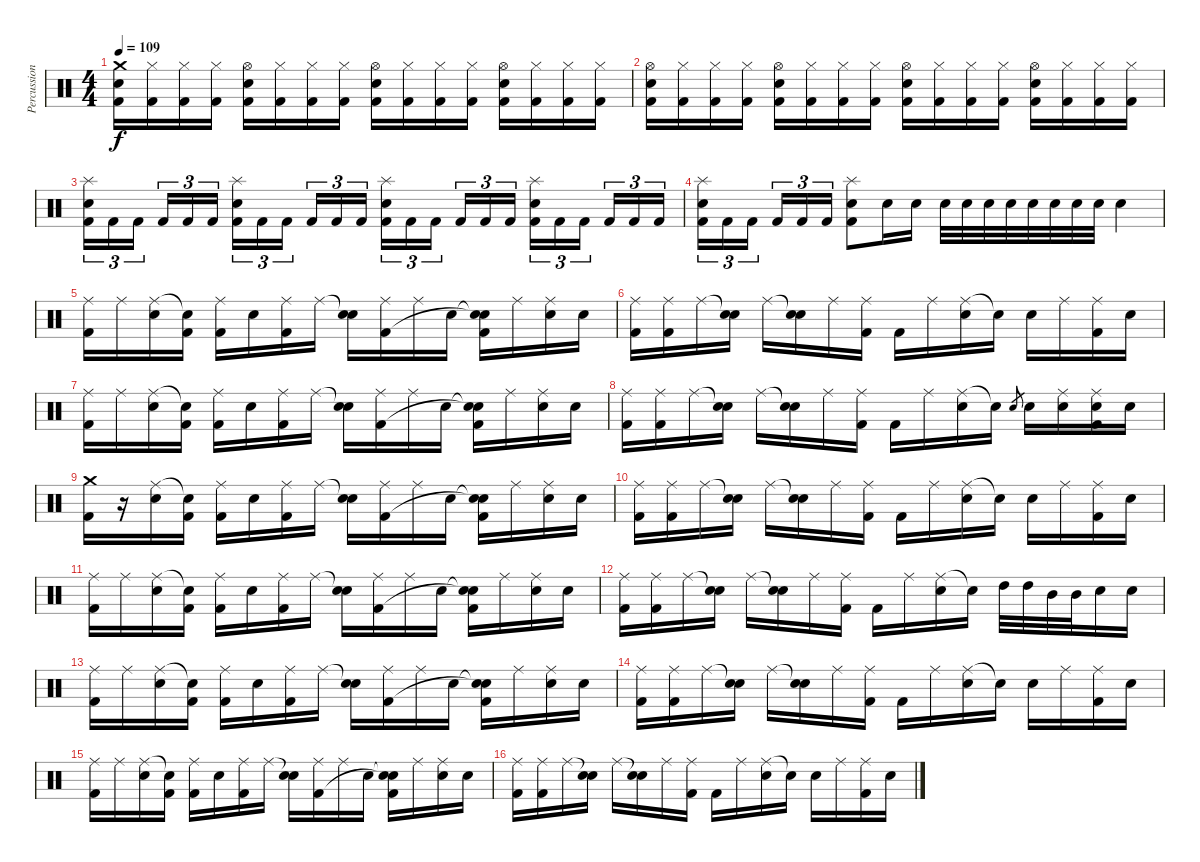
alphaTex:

\track ("Percussions" "Percussion") {instrument percussion}
\staff {score}
\articulation defaults
\ts (4 4)
\tempo 109
\clef neutral
\ks c
("Crash medium (hit)" "Electric Snare (hit)" "Kick (hit) 2").16{dy f} ("Hi-Hat (closed)" "Kick (hit) 2").16 ("Hi-Hat (closed)" "Kick (hit) 2").16 ("Hi-Hat (closed)" "Kick (hit) 2").16 ("Hi-Hat (open)" "Electric Snare (hit)" "Kick (hit) 2").16 ("Hi-Hat (closed)" "Kick (hit) 2").16 ("Hi-Hat (closed)" "Kick (hit) 2").16 ("Hi-Hat (closed)" "Kick (hit) 2").16 ("Hi-Hat (open)" "Electric Snare (hit)" "Kick (hit) 2").16 ("Hi-Hat (closed)" "Kick (hit) 2").16 ("Hi-Hat (closed)" "Kick (hit) 2").16 ("Hi-Hat (closed)" "Kick (hit) 2").16 ("Hi-Hat (open)" "Electric Snare (hit)" "Kick (hit) 2").16 ("Hi-Hat (closed)" "Kick (hit) 2").16 ("Hi-Hat (closed)" "Kick (hit) 2").16 ("Hi-Hat (closed)" "Kick (hit) 2").16 |
("Hi-Hat (open)" "Electric Snare (hit)" "Kick (hit) 2").16 ("Hi-Hat (closed)" "Kick (hit) 2").16 ("Hi-Hat (closed)" "Kick (hit) 2").16 ("Hi-Hat (closed)" "Kick (hit) 2").16 ("Hi-Hat (open)" "Electric Snare (hit)" "Kick (hit) 2").16 ("Hi-Hat (closed)" "Kick (hit) 2").16 ("Hi-Hat (closed)" "Kick (hit) 2").16 ("Hi-Hat (closed)" "Kick (hit) 2").16 ("Hi-Hat (open)" "Electric Snare (hit)" "Kick (hit) 2").16 ("Hi-Hat (closed)" "Kick (hit) 2").16 ("Hi-Hat (closed)" "Kick (hit) 2").16 ("Hi-Hat (closed)" "Kick (hit) 2").16 ("Hi-Hat (open)" "Electric Snare (hit)" "Kick (hit) 2").16 ("Hi-Hat (closed)" "Kick (hit) 2").16 ("Hi-Hat (closed)" "Kick (hit) 2").16 ("Hi-Hat (closed)" "Kick (hit) 2").16 |
("Splash (hit)" "Electric Snare (hit)" "Kick (hit) 2").16{tu (3 2)} "Kick (hit) 2".16{tu (3 2)} "Kick (hit) 2".16{tu (3 2)} "Kick (hit) 2".16{tu (3 2)} "Kick (hit) 2".16{tu (3 2)} "Kick (hit) 2".16{tu (3 2)} ("Splash (hit)" "Electric Snare (hit)" "Kick (hit) 2").16{tu (3 2)} "Kick (hit) 2".16{tu (3 2)} "Kick (hit) 2".16{tu (3 2)} "Kick (hit) 2".16{tu (3 2)} "Kick (hit) 2".16{tu (3 2)} "Kick (hit) 2".16{tu (3 2)} ("Splash (hit)" "Electric Snare (hit)" "Kick (hit) 2").16{tu (3 2)} "Kick (hit) 2".16{tu (3 2)} "Kick (hit) 2".16{tu (3 2)} "Kick (hit) 2".16{tu (3 2)} "Kick (hit) 2".16{tu (3 2)} "Kick (hit) 2".16{tu (3 2)} ("Splash (hit)" "Electric Snare (hit)" "Kick (hit) 2").16{tu (3 2)} "Kick (hit) 2".16{tu (3 2)} "Kick (hit) 2".16{tu (3 2)} "Kick (hit) 2".16{tu (3 2)} "Kick (hit) 2".16{tu (3 2)} "Kick (hit) 2".16{tu (3 2)} |
("Splash (hit)" "Electric Snare (hit)" "Kick (hit) 2").16{tu (3 2)} "Kick (hit) 2".16{tu (3 2)} "Kick (hit) 2".16{tu (3 2)} "Kick (hit) 2".16{tu (3 2)} "Kick (hit) 2".16{tu (3 2)} "Kick (hit) 2".16{tu (3 2)} ("Splash (hit)" "Electric Snare (hit)" "Kick (hit) 2").8 "Electric Snare (hit)".16 "Electric Snare (hit)".16 "Electric Snare (hit)".32 "Electric Snare (hit)".32 "Electric Snare (hit)".32 "Electric Snare (hit)".32 "Electric Snare (hit)".32 "Electric Snare (hit)".32 "Electric Snare (hit)".32 "Electric Snare (hit)".32 "Electric Snare (hit)".4 |
("Ride (middle)" "Kick (hit) 2").16 "Ride (middle)".16 ("Ride (middle)" "Electric Snare (hit)").16 ("Electric Snare (hit)"{t} "Kick (hit) 2").16 ("Ride (middle)" "Kick (hit) 2").16 "Electric Snare (hit)".16 ("Ride (middle)" "Kick (hit) 2").16 "Ride (middle)".16 ("Snare (hit)"{t} "Electric Snare (hit)").16 ("Ride (middle)" "Kick (hit) 2").16 "Ride (middle)".16 "Electric Snare (hit)".16 ("Snare (hit)"{t} "Snare (hit)"{t} "Kick (hit) 2").16 "Ride (middle)".16 ("Ride (middle)" "Electric Snare (hit)").16 "Electric Snare (hit)".16 |
("Ride (middle)" "Kick (hit) 2").16 ("Ride (middle)" "Kick (hit) 2").16 "Ride (middle)".16 ("Snare (hit)"{t} "Electric Snare (hit)").16 "Ride (middle)".16 ("Snare (hit)"{t} "Electric Snare (hit)").16 "Ride (middle)".16 ("Ride (middle)" "Kick (hit) 2").16 "Kick (hit) 2".16 "Ride (middle)".16 ("Ride (middle)" "Electric Snare (hit)").16 "Snare (hit)"{t}.16 "Electric Snare (hit)".16 "Ride (middle)".16 ("Ride (middle)" "Kick (hit) 2").16 "Electric Snare (hit)".16 |
("Ride (middle)" "Kick (hit) 2").16 "Ride (middle)".16 ("Ride (middle)" "Electric Snare (hit)").16 ("Electric Snare (hit)"{t} "Kick (hit) 2").16 ("Ride (middle)" "Kick (hit) 2").16 "Electric Snare (hit)".16 ("Ride (middle)" "Kick (hit) 2").16 "Ride (middle)".16 ("Snare (hit)"{t} "Electric Snare (hit)").16 ("Ride (middle)" "Kick (hit) 2").16 "Ride (middle)".16 "Electric Snare (hit)".16 ("Snare (hit)"{t} "Snare (hit)"{t} "Kick (hit) 2").16 "Ride (middle)".16 ("Ride (middle)" "Electric Snare (hit)").16 "Electric Snare (hit)".16 |
("Ride (middle)" "Kick (hit) 2").16 ("Ride (middle)" "Kick (hit) 2").16 "Ride (middle)".16 ("Snare (hit)"{t} "Electric Snare (hit)").16 "Ride (middle)".16 ("Snare (hit)"{t} "Electric Snare (hit)").16 "Ride (middle)".16 ("Ride (middle)" "Kick (hit) 2").16 "Kick (hit) 2".16 "Ride (middle)".16 ("Ride (middle)" "Electric Snare (hit)").16 "Snare (hit)"{t}.16 "Electric Snare (hit)".8{gr} "Electric Snare (hit)".16 ("Ride (middle)" "Electric Snare (hit)").16 ("Ride (middle)" "Electric Snare (hit)" "Kick (hit) 2").16 "Electric Snare (hit)".16 |
("Crash medium (hit)" "Kick (hit) 2").16 r.16 ("Ride (middle)" "Electric Snare (hit)").16 ("Electric Snare (hit)"{t} "Kick (hit) 2").16 ("Ride (middle)" "Kick (hit) 2").16 "Electric Snare (hit)".16 ("Ride (middle)" "Kick (hit) 2").16 "Ride (middle)".16 ("Snare (hit)"{t} "Electric Snare (hit)").16 ("Ride (middle)" "Kick (hit) 2").16 "Ride (middle)".16 "Electric Snare (hit)".16 ("Snare (hit)"{t} "Snare (hit)"{t} "Kick (hit) 2").16 "Ride (middle)".16 ("Ride (middle)" "Electric Snare (hit)").16 "Electric Snare (hit)".16 |
("Ride (middle)" "Kick (hit) 2").16 ("Ride (middle)" "Kick (hit) 2").16 "Ride (middle)".16 ("Snare (hit)"{t} "Electric Snare (hit)").16 "Ride (middle)".16 ("Snare (hit)"{t} "Electric Snare (hit)").16 "Ride (middle)".16 ("Ride (middle)" "Kick (hit) 2").16 "Kick (hit) 2".16 "Ride (middle)".16 ("Ride (middle)" "Electric Snare (hit)").16 "Snare (hit)"{t}.16 "Electric Snare (hit)".16 "Ride (middle)".16 ("Ride (middle)" "Kick (hit) 2").16 "Electric Snare (hit)".16 |
("Ride (middle)" "Kick (hit) 2").16 "Ride (middle)".16 ("Ride (middle)" "Electric Snare (hit)").16 ("Electric Snare (hit)"{t} "Kick (hit) 2").16 ("Ride (middle)" "Kick (hit) 2").16 "Electric Snare (hit)".16 ("Ride (middle)" "Kick (hit) 2").16 "Ride (middle)".16 ("Snare (hit)"{t} "Electric Snare (hit)").16 ("Ride (middle)" "Kick (hit) 2").16 "Ride (middle)".16 "Electric Snare (hit)".16 ("Snare (hit)"{t} "Snare (hit)"{t} "Kick (hit) 2").16 "Ride (middle)".16 ("Ride (middle)" "Electric Snare (hit)").16 "Electric Snare (hit)".16 |
("Ride (middle)" "Kick (hit) 2").16 ("Ride (middle)" "Kick (hit) 2").16 "Ride (middle)".16 ("Snare (hit)"{t} "Electric Snare (hit)").16 "Ride (middle)".16 ("Snare (hit)"{t} "Electric Snare (hit)").16 "Ride (middle)".16 ("Ride (middle)" "Kick (hit) 2").16 "Kick (hit) 2".16 "Ride (middle)".16 ("Ride (middle)" "Electric Snare (hit)").16 "Snare (hit)"{t}.16 "High Tom (hit)".32 "High Tom (hit)".32 "Mid Tom (hit)".32 "Mid Tom (hit)".32 "Electric Snare (hit)".16 "Electric Snare (hit)".16 |
("Ride (middle)" "Kick (hit) 2").16 "Ride (middle)".16 ("Ride (middle)" "Electric Snare (hit)").16 ("Electric Snare (hit)"{t} "Kick (hit) 2").16 ("Ride (middle)" "Kick (hit) 2").16 "Electric Snare (hit)".16 ("Ride (middle)" "Kick (hit) 2").16 "Ride (middle)".16 ("Snare (hit)"{t} "Electric Snare (hit)").16 ("Ride (middle)" "Kick (hit) 2").16 "Ride (middle)".16 "Electric Snare (hit)".16 ("Snare (hit)"{t} "Snare (hit)"{t} "Kick (hit) 2").16 "Ride (middle)".16 ("Ride (middle)" "Electric Snare (hit)").16 "Electric Snare (hit)".16 |
("Ride (middle)" "Kick (hit) 2").16 ("Ride (middle)" "Kick (hit) 2").16 "Ride (middle)".16 ("Snare (hit)"{t} "Electric Snare (hit)").16 "Ride (middle)".16 ("Snare (hit)"{t} "Electric Snare (hit)").16 "Ride (middle)".16 ("Ride (middle)" "Kick (hit) 2").16 "Kick (hit) 2".16 "Ride (middle)".16 ("Ride (middle)" "Electric Snare (hit)").16 "Snare (hit)"{t}.16 "Electric Snare (hit)".16 "Ride (middle)".16 ("Ride (middle)" "Kick (hit) 2").16 "Electric Snare (hit)".16 |
("Ride (middle)" "Kick (hit) 2").16 "Ride (middle)".16 ("Ride (middle)" "Electric Snare (hit)").16 ("Electric Snare (hit)"{t} "Kick (hit) 2").16 ("Ride (middle)" "Kick (hit) 2").16 "Electric Snare (hit)".16 ("Ride (middle)" "Kick (hit) 2").16 "Ride (middle)".16 ("Snare (hit)"{t} "Electric Snare (hit)").16 ("Ride (middle)" "Kick (hit) 2").16 "Ride (middle)".16 "Electric Snare (hit)".16 ("Snare (hit)"{t} "Snare (hit)"{t} "Kick (hit) 2").16 "Ride (middle)".16 ("Ride (middle)" "Electric Snare (hit)").16 "Electric Snare (hit)".16 |
("Ride (middle)" "Kick (hit) 2").16 ("Ride (middle)" "Kick (hit) 2").16 "Ride (middle)".16 ("Snare (hit)"{t} "Electric Snare (hit)").16 "Ride (middle)".16 ("Snare (hit)"{t} "Electric Snare (hit)").16 "Ride (middle)".16 ("Ride (middle)" "Kick (hit) 2").16 "Kick (hit) 2".16 "Ride (middle)".16 ("Ride (middle)" "Electric Snare (hit)").16 "Snare (hit)"{t}.16 "Electric Snare (hit)".16 "Ride (middle)".16 ("Ride (middle)" "Kick (hit) 2").16 "Electric Snare (hit)".16
